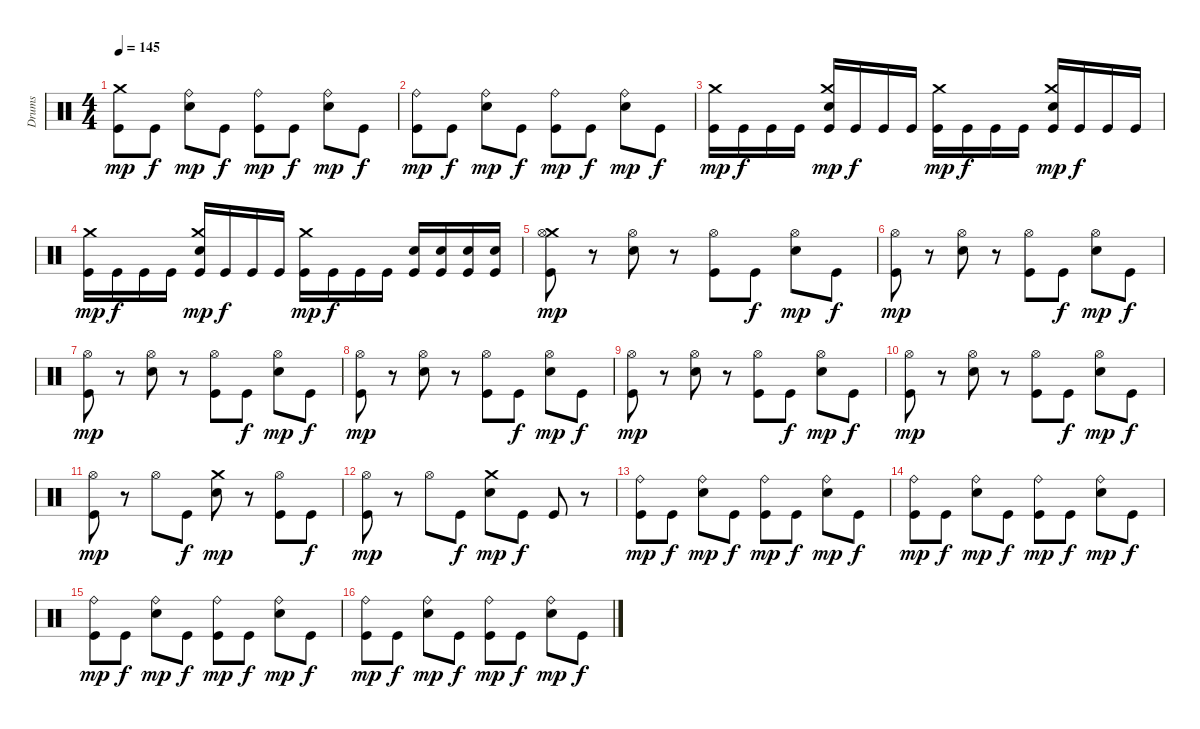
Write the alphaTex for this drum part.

\track ("Drums" "Drums") {instrument percussion}
\staff {score}
\articulation defaults
\ts (4 4)
\tempo 145
\clef neutral
\ks c
("Kick (hit)" "Crash medium (hit)").8{dy mp} "Kick (hit)".8{dy f} ("Snare (hit) 2" "Ride (bell)").8{dy mp} "Kick (hit)".8{dy f} ("Kick (hit)" "Ride (bell)").8{dy mp} "Kick (hit)".8{dy f} ("Snare (hit) 2" "Ride (bell)").8{dy mp} "Kick (hit)".8{dy f} |
("Kick (hit)" "Ride (bell)").8{dy mp} "Kick (hit)".8{dy f} ("Snare (hit) 2" "Ride (bell)").8{dy mp} "Kick (hit)".8{dy f} ("Kick (hit)" "Ride (bell)").8{dy mp} "Kick (hit)".8{dy f} ("Snare (hit) 2" "Ride (bell)").8{dy mp} "Kick (hit)".8{dy f} |
("Kick (hit)" "Crash medium (hit)").16{dy mp} "Kick (hit)".16{dy f} "Kick (hit)".16 "Kick (hit)".16 ("Kick (hit)" "Snare (hit) 2" "Crash medium (hit)").16{dy mp} "Kick (hit)".16{dy f} "Kick (hit)".16 "Kick (hit)".16 ("Kick (hit)" "Crash medium (hit)").16{dy mp} "Kick (hit)".16{dy f} "Kick (hit)".16 "Kick (hit)".16 ("Kick (hit)" "Snare (hit) 2" "Crash medium (hit)").16{dy mp} "Kick (hit)".16{dy f} "Kick (hit)".16 "Kick (hit)".16 |
("Kick (hit)" "Crash medium (hit)").16{dy mp} "Kick (hit)".16{dy f} "Kick (hit)".16 "Kick (hit)".16 ("Kick (hit)" "Snare (hit) 2" "Crash medium (hit)").16{dy mp} "Kick (hit)".16{dy f} "Kick (hit)".16 "Kick (hit)".16 ("Kick (hit)" "Crash medium (hit)").16{dy mp} "Kick (hit)".16{dy f} "Kick (hit)".16 "Kick (hit)".16 ("Kick (hit)" "Snare (hit) 2").16 ("Kick (hit)" "Snare (hit) 2").16 ("Kick (hit)" "Snare (hit) 2").16 ("Kick (hit)" "Snare (hit) 2").16 |
("Kick (hit)" "Crash medium (hit)" "Hi-Hat (open)").8{dy mp} r.8 ("Snare (hit) 2" "Hi-Hat (open)").8 r.8 ("Kick (hit)" "Hi-Hat (open)").8 "Kick (hit)".8{dy f} ("Snare (hit) 2" "Hi-Hat (open)").8{dy mp} "Kick (hit)".8{dy f} |
("Kick (hit)" "Hi-Hat (open)").8{dy mp} r.8 ("Snare (hit) 2" "Hi-Hat (open)").8 r.8 ("Kick (hit)" "Hi-Hat (open)").8 "Kick (hit)".8{dy f} ("Snare (hit) 2" "Hi-Hat (open)").8{dy mp} "Kick (hit)".8{dy f} |
("Kick (hit)" "Hi-Hat (open)").8{dy mp} r.8 ("Snare (hit) 2" "Hi-Hat (open)").8 r.8 ("Kick (hit)" "Hi-Hat (open)").8 "Kick (hit)".8{dy f} ("Snare (hit) 2" "Hi-Hat (open)").8{dy mp} "Kick (hit)".8{dy f} |
("Kick (hit)" "Hi-Hat (open)").8{dy mp} r.8 ("Snare (hit) 2" "Hi-Hat (open)").8 r.8 ("Kick (hit)" "Hi-Hat (open)").8 "Kick (hit)".8{dy f} ("Snare (hit) 2" "Hi-Hat (open)").8{dy mp} "Kick (hit)".8{dy f} |
("Kick (hit)" "Hi-Hat (open)").8{dy mp} r.8 ("Snare (hit) 2" "Hi-Hat (open)").8 r.8 ("Kick (hit)" "Hi-Hat (open)").8 "Kick (hit)".8{dy f} ("Snare (hit) 2" "Hi-Hat (open)").8{dy mp} "Kick (hit)".8{dy f} |
("Kick (hit)" "Hi-Hat (open)").8{dy mp} r.8 ("Snare (hit) 2" "Hi-Hat (open)").8 r.8 ("Kick (hit)" "Hi-Hat (open)").8 "Kick (hit)".8{dy f} ("Snare (hit) 2" "Hi-Hat (open)").8{dy mp} "Kick (hit)".8{dy f} |
("Kick (hit)" "Hi-Hat (open)").8{dy mp} r.8 "Hi-Hat (open)".8 "Kick (hit)".8{dy f} ("Snare (hit) 2" "Crash medium (hit)").8{dy mp} r.8 ("Kick (hit)" "Hi-Hat (open)").8 "Kick (hit)".8{dy f} |
("Kick (hit)" "Hi-Hat (open)").8{dy mp} r.8 "Hi-Hat (open)".8 "Kick (hit)".8{dy f} ("Snare (hit) 2" "Crash medium (hit)").8{dy mp} "Kick (hit)".8{dy f} "Kick (hit)".8 r.8 |
("Kick (hit)" "Ride (bell)").8{dy mp} "Kick (hit)".8{dy f} ("Snare (hit) 2" "Ride (bell)").8{dy mp} "Kick (hit)".8{dy f} ("Kick (hit)" "Ride (bell)").8{dy mp} "Kick (hit)".8{dy f} ("Snare (hit) 2" "Ride (bell)").8{dy mp} "Kick (hit)".8{dy f} |
("Kick (hit)" "Ride (bell)").8{dy mp} "Kick (hit)".8{dy f} ("Snare (hit) 2" "Ride (bell)").8{dy mp} "Kick (hit)".8{dy f} ("Kick (hit)" "Ride (bell)").8{dy mp} "Kick (hit)".8{dy f} ("Snare (hit) 2" "Ride (bell)").8{dy mp} "Kick (hit)".8{dy f} |
("Kick (hit)" "Ride (bell)").8{dy mp} "Kick (hit)".8{dy f} ("Snare (hit) 2" "Ride (bell)").8{dy mp} "Kick (hit)".8{dy f} ("Kick (hit)" "Ride (bell)").8{dy mp} "Kick (hit)".8{dy f} ("Snare (hit) 2" "Ride (bell)").8{dy mp} "Kick (hit)".8{dy f} |
("Kick (hit)" "Ride (bell)").8{dy mp} "Kick (hit)".8{dy f} ("Snare (hit) 2" "Ride (bell)").8{dy mp} "Kick (hit)".8{dy f} ("Kick (hit)" "Ride (bell)").8{dy mp} "Kick (hit)".8{dy f} ("Snare (hit) 2" "Ride (bell)").8{dy mp} "Kick (hit)".8{dy f}
